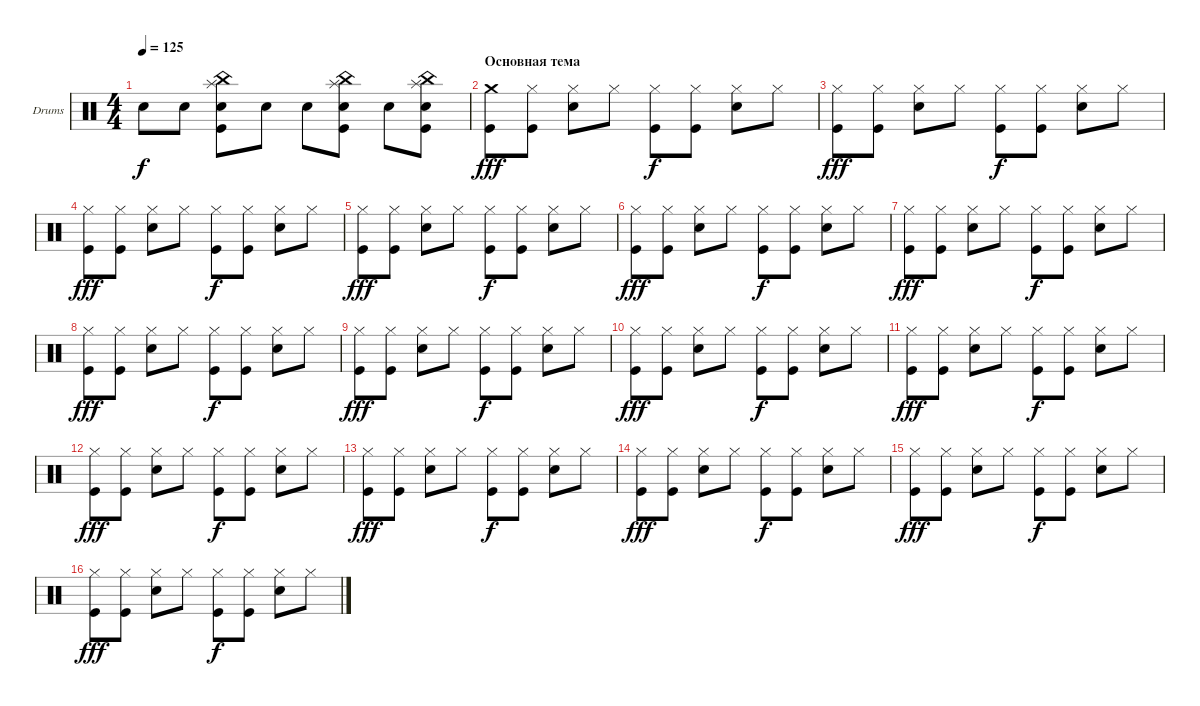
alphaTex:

\defaultSystemsLayout 4
\bracketExtendMode groupsimilarinstruments
\firstSystemTrackNameOrientation horizontal
\otherSystemsTrackNameOrientation horizontal
\track ("Drumkit" "Drums") {instrument percussion}
\staff {score}
\articulation defaults
\ts (4 4)
\tempo 125
\clef neutral
\ks c "Snare (hit) 2".8{dy f} "Snare (hit) 2".8
("Snare (hit) 2" "Kick (hit)" "Splash (hit)" "China (hit)").8 "Snare (hit) 2".8 "Snare (hit) 2".8 ("Snare (hit) 2" "Kick (hit)" "China (hit)" "Splash (hit)").8 "Snare (hit) 2".8 ("Snare (hit) 2" "Kick (hit)" "Splash (hit)" "China (hit)").8 |
\section ("" "Основная тема")
("Crash medium (hit)" "Kick (hit)").8{dy fff} ("Hi-Hat (closed)" "Kick (hit)").8 ("Hi-Hat (closed)" "Snare (hit) 2").8 "Hi-Hat (closed)".8 ("Hi-Hat (closed)" "Kick (hit)").8{dy f} ("Hi-Hat (closed)" "Kick (hit)").8 ("Hi-Hat (closed)" "Snare (hit) 2").8 "Hi-Hat (closed)".8 |
("Hi-Hat (closed)" "Kick (hit)").8{dy fff} ("Hi-Hat (closed)" "Kick (hit)").8 ("Hi-Hat (closed)" "Snare (hit) 2").8 "Hi-Hat (closed)".8 ("Hi-Hat (closed)" "Kick (hit)").8{dy f} ("Hi-Hat (closed)" "Kick (hit)").8 ("Hi-Hat (closed)" "Snare (hit) 2").8 "Hi-Hat (closed)".8 |
("Hi-Hat (closed)" "Kick (hit)").8{dy fff} ("Hi-Hat (closed)" "Kick (hit)").8 ("Hi-Hat (closed)" "Snare (hit) 2").8 "Hi-Hat (closed)".8 ("Hi-Hat (closed)" "Kick (hit)").8{dy f} ("Hi-Hat (closed)" "Kick (hit)").8 ("Hi-Hat (closed)" "Snare (hit) 2").8 "Hi-Hat (closed)".8 |
("Hi-Hat (closed)" "Kick (hit)").8{dy fff} ("Hi-Hat (closed)" "Kick (hit)").8 ("Hi-Hat (closed)" "Snare (hit) 2").8 "Hi-Hat (closed)".8 ("Hi-Hat (closed)" "Kick (hit)").8{dy f} ("Hi-Hat (closed)" "Kick (hit)").8 ("Hi-Hat (closed)" "Snare (hit) 2").8 "Hi-Hat (closed)".8 |
("Hi-Hat (closed)" "Kick (hit)").8{dy fff} ("Hi-Hat (closed)" "Kick (hit)").8 ("Hi-Hat (closed)" "Snare (hit) 2").8 "Hi-Hat (closed)".8 ("Hi-Hat (closed)" "Kick (hit)").8{dy f} ("Hi-Hat (closed)" "Kick (hit)").8 ("Hi-Hat (closed)" "Snare (hit) 2").8 "Hi-Hat (closed)".8 |
("Hi-Hat (closed)" "Kick (hit)").8{dy fff} ("Hi-Hat (closed)" "Kick (hit)").8 ("Hi-Hat (closed)" "Snare (hit) 2").8 "Hi-Hat (closed)".8 ("Hi-Hat (closed)" "Kick (hit)").8{dy f} ("Hi-Hat (closed)" "Kick (hit)").8 ("Hi-Hat (closed)" "Snare (hit) 2").8 "Hi-Hat (closed)".8 |
("Hi-Hat (closed)" "Kick (hit)").8{dy fff} ("Hi-Hat (closed)" "Kick (hit)").8 ("Hi-Hat (closed)" "Snare (hit) 2").8 "Hi-Hat (closed)".8 ("Hi-Hat (closed)" "Kick (hit)").8{dy f} ("Hi-Hat (closed)" "Kick (hit)").8 ("Hi-Hat (closed)" "Snare (hit) 2").8 "Hi-Hat (closed)".8 |
("Hi-Hat (closed)" "Kick (hit)").8{dy fff} ("Hi-Hat (closed)" "Kick (hit)").8 ("Hi-Hat (closed)" "Snare (hit) 2").8 "Hi-Hat (closed)".8 ("Hi-Hat (closed)" "Kick (hit)").8{dy f} ("Hi-Hat (closed)" "Kick (hit)").8 ("Hi-Hat (closed)" "Snare (hit) 2").8 "Hi-Hat (closed)".8 |
("Hi-Hat (closed)" "Kick (hit)").8{dy fff} ("Hi-Hat (closed)" "Kick (hit)").8 ("Hi-Hat (closed)" "Snare (hit) 2").8 "Hi-Hat (closed)".8 ("Hi-Hat (closed)" "Kick (hit)").8{dy f} ("Hi-Hat (closed)" "Kick (hit)").8 ("Hi-Hat (closed)" "Snare (hit) 2").8 "Hi-Hat (closed)".8 |
("Hi-Hat (closed)" "Kick (hit)").8{dy fff} ("Hi-Hat (closed)" "Kick (hit)").8 ("Hi-Hat (closed)" "Snare (hit) 2").8 "Hi-Hat (closed)".8 ("Hi-Hat (closed)" "Kick (hit)").8{dy f} ("Hi-Hat (closed)" "Kick (hit)").8 ("Hi-Hat (closed)" "Snare (hit) 2").8 "Hi-Hat (closed)".8 |
("Hi-Hat (closed)" "Kick (hit)").8{dy fff} ("Hi-Hat (closed)" "Kick (hit)").8 ("Hi-Hat (closed)" "Snare (hit) 2").8 "Hi-Hat (closed)".8 ("Hi-Hat (closed)" "Kick (hit)").8{dy f} ("Hi-Hat (closed)" "Kick (hit)").8 ("Hi-Hat (closed)" "Snare (hit) 2").8 "Hi-Hat (closed)".8 |
("Hi-Hat (closed)" "Kick (hit)").8{dy fff} ("Hi-Hat (closed)" "Kick (hit)").8 ("Hi-Hat (closed)" "Snare (hit) 2").8 "Hi-Hat (closed)".8 ("Hi-Hat (closed)" "Kick (hit)").8{dy f} ("Hi-Hat (closed)" "Kick (hit)").8 ("Hi-Hat (closed)" "Snare (hit) 2").8 "Hi-Hat (closed)".8 |
("Hi-Hat (closed)" "Kick (hit)").8{dy fff} ("Hi-Hat (closed)" "Kick (hit)").8 ("Hi-Hat (closed)" "Snare (hit) 2").8 "Hi-Hat (closed)".8 ("Hi-Hat (closed)" "Kick (hit)").8{dy f} ("Hi-Hat (closed)" "Kick (hit)").8 ("Hi-Hat (closed)" "Snare (hit) 2").8 "Hi-Hat (closed)".8 |
("Hi-Hat (closed)" "Kick (hit)").8{dy fff} ("Hi-Hat (closed)" "Kick (hit)").8 ("Hi-Hat (closed)" "Snare (hit) 2").8 "Hi-Hat (closed)".8 ("Hi-Hat (closed)" "Kick (hit)").8{dy f} ("Hi-Hat (closed)" "Kick (hit)").8 ("Hi-Hat (closed)" "Snare (hit) 2").8 "Hi-Hat (closed)".8 |
("Hi-Hat (closed)" "Kick (hit)").8{dy fff} ("Hi-Hat (closed)" "Kick (hit)").8 ("Hi-Hat (closed)" "Snare (hit) 2").8 "Hi-Hat (closed)".8 ("Hi-Hat (closed)" "Kick (hit)").8{dy f} ("Hi-Hat (closed)" "Kick (hit)").8 ("Hi-Hat (closed)" "Snare (hit) 2").8 "Hi-Hat (closed)".8
